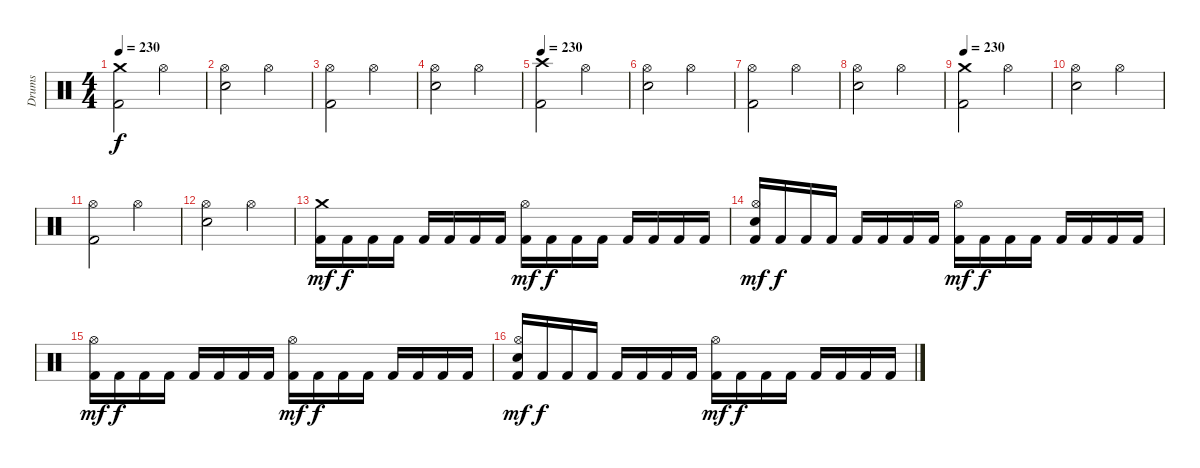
\track ("Drums" "Drums") {instrument percussion}
\staff {score}
\articulation defaults
\ts (4 4)
\tempo 230
\clef neutral
\ks c
("Crash medium (hit)" "Kick (hit) 2").2{dy f} "Hi-Hat (open)".2 |
("Hi-Hat (open)" "Snare (hit) 2").2 "Hi-Hat (open)".2 |
("Hi-Hat (open)" "Kick (hit) 2").2 "Hi-Hat (open)".2 |
("Hi-Hat (open)" "Snare (hit) 2").2 "Hi-Hat (open)".2 |
\tempo 230
("Crash high (hit)" "Kick (hit) 2").2 "Hi-Hat (open)".2 |
("Hi-Hat (open)" "Snare (hit) 2").2 "Hi-Hat (open)".2 |
("Hi-Hat (open)" "Kick (hit) 2").2 "Hi-Hat (open)".2 |
("Hi-Hat (open)" "Snare (hit) 2").2 "Hi-Hat (open)".2 |
\tempo 230
("Crash medium (hit)" "Kick (hit) 2").2 "Hi-Hat (open)".2 |
("Hi-Hat (open)" "Snare (hit) 2").2 "Hi-Hat (open)".2 |
("Hi-Hat (open)" "Kick (hit) 2").2 "Hi-Hat (open)".2 |
("Hi-Hat (open)" "Snare (hit) 2").2 "Hi-Hat (open)".2 |
("Crash medium (hit)" "Kick (hit) 2").16{dy mf} "Kick (hit) 2".16{dy f} "Kick (hit) 2".16 "Kick (hit) 2".16 "Kick (hit) 2".16 "Kick (hit) 2".16 "Kick (hit) 2".16 "Kick (hit) 2".16 ("Hi-Hat (open)" "Kick (hit) 2").16{dy mf} "Kick (hit) 2".16{dy f} "Kick (hit) 2".16 "Kick (hit) 2".16 "Kick (hit) 2".16 "Kick (hit) 2".16 "Kick (hit) 2".16 "Kick (hit) 2".16 |
("Hi-Hat (open)" "Snare (hit) 2" "Kick (hit) 2").16{dy mf} "Kick (hit) 2".16{dy f} "Kick (hit) 2".16 "Kick (hit) 2".16 "Kick (hit) 2".16 "Kick (hit) 2".16 "Kick (hit) 2".16 "Kick (hit) 2".16 ("Hi-Hat (open)" "Kick (hit) 2").16{dy mf} "Kick (hit) 2".16{dy f} "Kick (hit) 2".16 "Kick (hit) 2".16 "Kick (hit) 2".16 "Kick (hit) 2".16 "Kick (hit) 2".16 "Kick (hit) 2".16 |
("Hi-Hat (open)" "Kick (hit) 2").16{dy mf} "Kick (hit) 2".16{dy f} "Kick (hit) 2".16 "Kick (hit) 2".16 "Kick (hit) 2".16 "Kick (hit) 2".16 "Kick (hit) 2".16 "Kick (hit) 2".16 ("Hi-Hat (open)" "Kick (hit) 2").16{dy mf} "Kick (hit) 2".16{dy f} "Kick (hit) 2".16 "Kick (hit) 2".16 "Kick (hit) 2".16 "Kick (hit) 2".16 "Kick (hit) 2".16 "Kick (hit) 2".16 |
("Hi-Hat (open)" "Snare (hit) 2" "Kick (hit) 2").16{dy mf} "Kick (hit) 2".16{dy f} "Kick (hit) 2".16 "Kick (hit) 2".16 "Kick (hit) 2".16 "Kick (hit) 2".16 "Kick (hit) 2".16 "Kick (hit) 2".16 ("Hi-Hat (open)" "Kick (hit) 2").16{dy mf} "Kick (hit) 2".16{dy f} "Kick (hit) 2".16 "Kick (hit) 2".16 "Kick (hit) 2".16 "Kick (hit) 2".16 "Kick (hit) 2".16 "Kick (hit) 2".16
